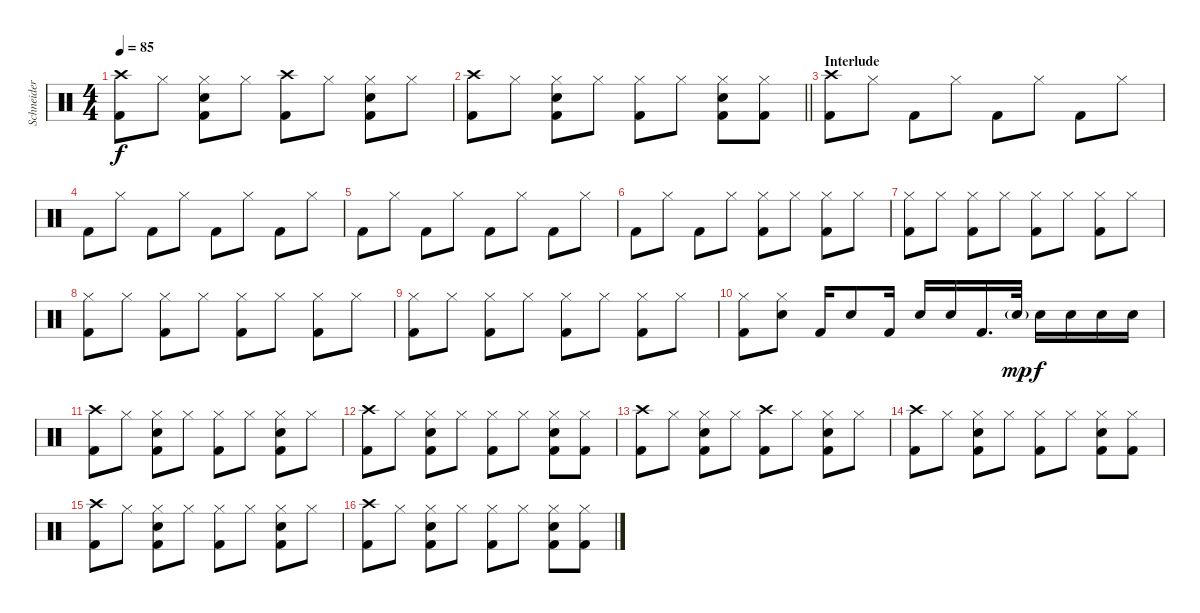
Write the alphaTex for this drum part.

\track ("Schneider" "Schneider") {instrument percussion}
\staff {score}
\articulation defaults
\ts (4 4)
\tempo 85
\clef neutral
\ks c
("Crash high (hit)" "Kick (hit) 2").8{dy f} "Hi-Hat (closed)".8 ("Hi-Hat (closed)" "Electric Snare (hit)" "Kick (hit) 2").8 "Hi-Hat (closed)".8 ("Crash high (hit)" "Kick (hit) 2").8 "Hi-Hat (closed)".8 ("Hi-Hat (closed)" "Electric Snare (hit)" "Kick (hit) 2").8 "Hi-Hat (closed)".8 |
\barLineRight lightlight
("Crash high (hit)" "Kick (hit) 2").8 "Hi-Hat (closed)".8 ("Hi-Hat (closed)" "Electric Snare (hit)" "Kick (hit) 2").8 "Hi-Hat (closed)".8 ("Hi-Hat (closed)" "Kick (hit) 2").8 "Hi-Hat (closed)".8 ("Hi-Hat (closed)" "Electric Snare (hit)" "Kick (hit) 2").8 ("Hi-Hat (closed)" "Kick (hit) 2").8 |
\section ("" "Interlude")
("Crash high (hit)" "Kick (hit) 2").8 "Hi-Hat (closed)".8 "Kick (hit) 2".8 "Hi-Hat (closed)".8 "Kick (hit) 2".8 "Hi-Hat (closed)".8 "Kick (hit) 2".8 "Hi-Hat (closed)".8 |
"Kick (hit) 2".8 "Hi-Hat (closed)".8 "Kick (hit) 2".8 "Hi-Hat (closed)".8 "Kick (hit) 2".8 "Hi-Hat (closed)".8 "Kick (hit) 2".8 "Hi-Hat (closed)".8 |
"Kick (hit) 2".8 "Hi-Hat (closed)".8 "Kick (hit) 2".8 "Hi-Hat (closed)".8 "Kick (hit) 2".8 "Hi-Hat (closed)".8 "Kick (hit) 2".8 "Hi-Hat (closed)".8 |
"Kick (hit) 2".8 "Hi-Hat (closed)".8 "Kick (hit) 2".8 "Hi-Hat (closed)".8 ("Hi-Hat (closed)" "Kick (hit) 2").8 "Hi-Hat (closed)".8 ("Hi-Hat (closed)" "Kick (hit) 2").8 "Hi-Hat (closed)".8 |
("Hi-Hat (closed)" "Kick (hit) 2").8 "Hi-Hat (closed)".8 ("Hi-Hat (closed)" "Kick (hit) 2").8 "Hi-Hat (closed)".8 ("Hi-Hat (closed)" "Kick (hit) 2").8 "Hi-Hat (closed)".8 ("Hi-Hat (closed)" "Kick (hit) 2").8 "Hi-Hat (closed)".8 |
("Hi-Hat (closed)" "Kick (hit) 2").8 "Hi-Hat (closed)".8 ("Hi-Hat (closed)" "Kick (hit) 2").8 "Hi-Hat (closed)".8 ("Hi-Hat (closed)" "Kick (hit) 2").8 "Hi-Hat (closed)".8 ("Hi-Hat (closed)" "Kick (hit) 2").8 "Hi-Hat (closed)".8 |
("Hi-Hat (closed)" "Kick (hit) 2").8 "Hi-Hat (closed)".8 ("Hi-Hat (closed)" "Kick (hit) 2").8 "Hi-Hat (closed)".8 ("Hi-Hat (closed)" "Kick (hit) 2").8 "Hi-Hat (closed)".8 ("Hi-Hat (closed)" "Kick (hit) 2").8 "Hi-Hat (closed)".8 |
("Hi-Hat (closed)" "Kick (hit) 2").8 ("Hi-Hat (closed)" "Electric Snare (hit)").8 "Kick (hit) 2".16 "Electric Snare (hit)".8 "Kick (hit) 2".16 "Electric Snare (hit)".16 "Electric Snare (hit)".16 "Kick (hit) 2".16{d} "Electric Snare (hit)"{g}.32{dy mp} "Electric Snare (hit)".16{dy f} "Electric Snare (hit)".16 "Electric Snare (hit)".16 "Electric Snare (hit)".16 |
("Crash high (hit)" "Kick (hit) 2").8 "Hi-Hat (closed)".8 ("Hi-Hat (closed)" "Electric Snare (hit)" "Kick (hit) 2").8 "Hi-Hat (closed)".8 ("Hi-Hat (closed)" "Kick (hit) 2").8 "Hi-Hat (closed)".8 ("Hi-Hat (closed)" "Electric Snare (hit)" "Kick (hit) 2").8 "Hi-Hat (closed)".8 |
("Crash high (hit)" "Kick (hit) 2").8 "Hi-Hat (closed)".8 ("Hi-Hat (closed)" "Electric Snare (hit)" "Kick (hit) 2").8 "Hi-Hat (closed)".8 ("Hi-Hat (closed)" "Kick (hit) 2").8 "Hi-Hat (closed)".8 ("Hi-Hat (closed)" "Electric Snare (hit)" "Kick (hit) 2").8 ("Hi-Hat (closed)" "Kick (hit) 2").8 |
("Crash high (hit)" "Kick (hit) 2").8 "Hi-Hat (closed)".8 ("Hi-Hat (closed)" "Electric Snare (hit)" "Kick (hit) 2").8 "Hi-Hat (closed)".8 ("Crash high (hit)" "Kick (hit) 2").8 "Hi-Hat (closed)".8 ("Hi-Hat (closed)" "Electric Snare (hit)" "Kick (hit) 2").8 "Hi-Hat (closed)".8 |
("Crash high (hit)" "Kick (hit) 2").8 "Hi-Hat (closed)".8 ("Hi-Hat (closed)" "Electric Snare (hit)" "Kick (hit) 2").8 "Hi-Hat (closed)".8 ("Hi-Hat (closed)" "Kick (hit) 2").8 "Hi-Hat (closed)".8 ("Hi-Hat (closed)" "Electric Snare (hit)" "Kick (hit) 2").8 ("Hi-Hat (closed)" "Kick (hit) 2").8 |
("Crash high (hit)" "Kick (hit) 2").8 "Hi-Hat (closed)".8 ("Hi-Hat (closed)" "Electric Snare (hit)" "Kick (hit) 2").8 "Hi-Hat (closed)".8 ("Hi-Hat (closed)" "Kick (hit) 2").8 "Hi-Hat (closed)".8 ("Hi-Hat (closed)" "Electric Snare (hit)" "Kick (hit) 2").8 "Hi-Hat (closed)".8 |
("Crash high (hit)" "Kick (hit) 2").8 "Hi-Hat (closed)".8 ("Hi-Hat (closed)" "Electric Snare (hit)" "Kick (hit) 2").8 "Hi-Hat (closed)".8 ("Hi-Hat (closed)" "Kick (hit) 2").8 "Hi-Hat (closed)".8 ("Hi-Hat (closed)" "Electric Snare (hit)" "Kick (hit) 2").8 ("Hi-Hat (closed)" "Kick (hit) 2").8
